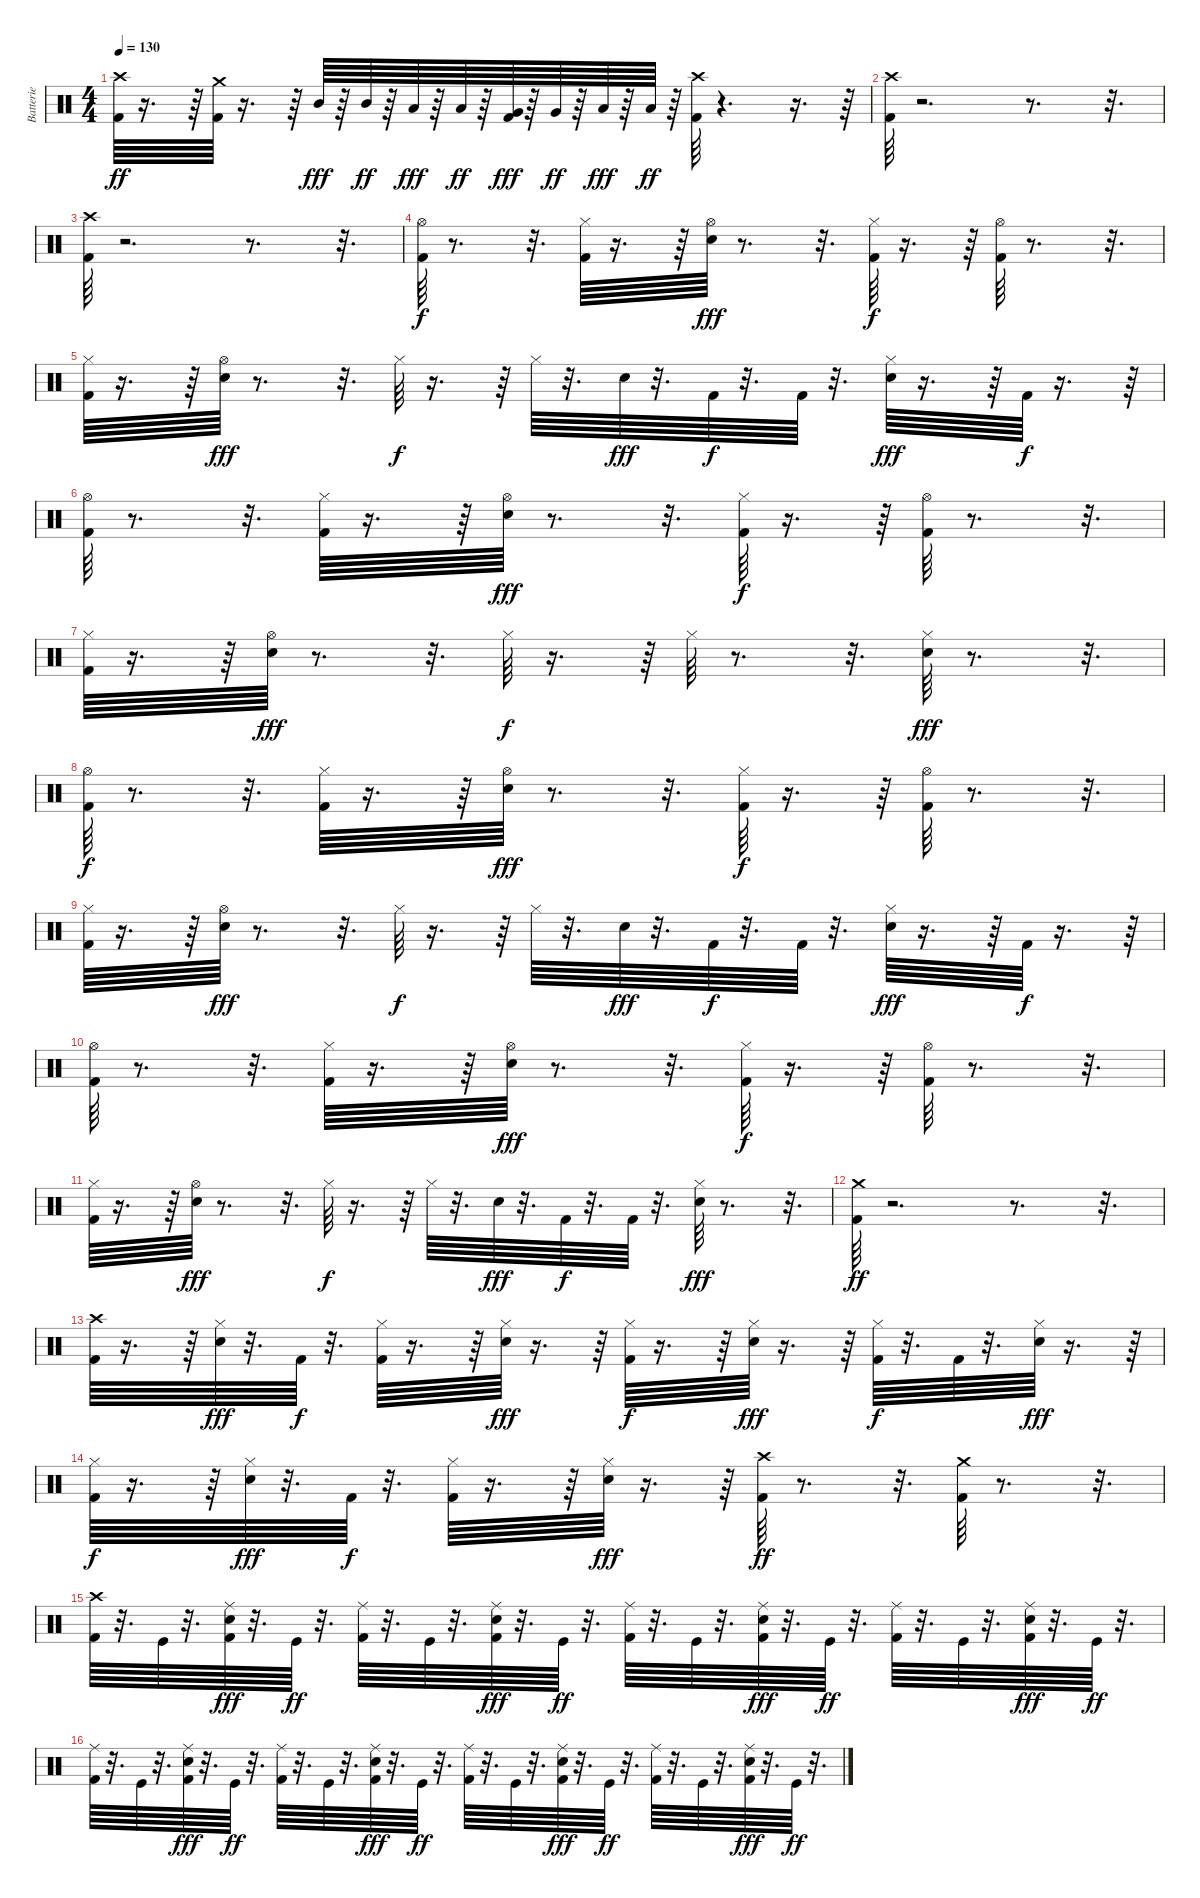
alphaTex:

\track ("Batterie" "Batterie") {instrument percussion}
\staff {score}
\articulation defaults
\ts (4 4)
\tempo 130
\clef neutral
\ks c
("Kick (hit) 2" "Crash high (hit)").64{dy ff} r.16{d} r.64 ("Kick (hit) 2" "Crash medium (hit)").64 r.16{d} r.64 "Mid Tom (hit)".64{dy fff} r.64 "Mid Tom (hit)".64{dy ff} r.64 "Low Tom (hit)".64{dy fff} r.64 "Low Tom (hit)".64{dy ff} r.64 ("Kick (hit) 2" "Very Low Tom (hit)").64{dy fff} r.64 "Very Low Tom (hit)".64{dy ff} r.64 "Low Floor Tom (hit)".64{dy fff} r.64 "Low Floor Tom (hit)".64{dy ff} r.64 ("Kick (hit) 2" "Crash high (hit)").64 r.4{d} r.16{d} r.64 |
("Kick (hit) 2" "Crash high (hit)").64 r.2{d} r.8{d} r.32{d} |
("Kick (hit) 2" "Crash high (hit)").64 r.2{d} r.8{d} r.32{d} |
("Kick (hit) 2" "Hi-Hat (open)").64{dy f} r.8{d} r.32{d} ("Kick (hit) 2" "Hi-Hat (closed)").64 r.16{d} r.64 ("Snare (hit) 2" "Hi-Hat (open)").64{dy fff} r.8{d} r.32{d} ("Kick (hit) 2" "Hi-Hat (closed)").64{dy f} r.16{d} r.64 ("Kick (hit) 2" "Hi-Hat (open)").64 r.8{d} r.32{d} |
("Kick (hit) 2" "Hi-Hat (closed)").64 r.16{d} r.64 ("Snare (hit) 2" "Hi-Hat (open)").64{dy fff} r.8{d} r.32{d} "Hi-Hat (closed)".64{dy f} r.16{d} r.64 "Hi-Hat (closed)".64 r.32{d} "Snare (hit) 2".64{dy fff} r.32{d} "Kick (hit) 2".64{dy f} r.32{d} "Kick (hit) 2".64 r.32{d} ("Hi-Hat (closed)" "Snare (hit) 2").64{dy fff} r.16{d} r.64 "Kick (hit) 2".64{dy f} r.16{d} r.64 |
("Kick (hit) 2" "Hi-Hat (open)").64 r.8{d} r.32{d} ("Kick (hit) 2" "Hi-Hat (closed)").64 r.16{d} r.64 ("Snare (hit) 2" "Hi-Hat (open)").64{dy fff} r.8{d} r.32{d} ("Kick (hit) 2" "Hi-Hat (closed)").64{dy f} r.16{d} r.64 ("Kick (hit) 2" "Hi-Hat (open)").64 r.8{d} r.32{d} |
("Kick (hit) 2" "Hi-Hat (closed)").64 r.16{d} r.64 ("Snare (hit) 2" "Hi-Hat (open)").64{dy fff} r.8{d} r.32{d} "Hi-Hat (closed)".64{dy f} r.16{d} r.64 "Hi-Hat (closed)".64 r.8{d} r.32{d} ("Hi-Hat (closed)" "Snare (hit) 2").64{dy fff} r.8{d} r.32{d} |
("Kick (hit) 2" "Hi-Hat (open)").64{dy f} r.8{d} r.32{d} ("Kick (hit) 2" "Hi-Hat (closed)").64 r.16{d} r.64 ("Snare (hit) 2" "Hi-Hat (open)").64{dy fff} r.8{d} r.32{d} ("Kick (hit) 2" "Hi-Hat (closed)").64{dy f} r.16{d} r.64 ("Kick (hit) 2" "Hi-Hat (open)").64 r.8{d} r.32{d} |
("Kick (hit) 2" "Hi-Hat (closed)").64 r.16{d} r.64 ("Snare (hit) 2" "Hi-Hat (open)").64{dy fff} r.8{d} r.32{d} "Hi-Hat (closed)".64{dy f} r.16{d} r.64 "Hi-Hat (closed)".64 r.32{d} "Snare (hit) 2".64{dy fff} r.32{d} "Kick (hit) 2".64{dy f} r.32{d} "Kick (hit) 2".64 r.32{d} ("Hi-Hat (closed)" "Snare (hit) 2").64{dy fff} r.16{d} r.64 "Kick (hit) 2".64{dy f} r.16{d} r.64 |
("Kick (hit) 2" "Hi-Hat (open)").64 r.8{d} r.32{d} ("Kick (hit) 2" "Hi-Hat (closed)").64 r.16{d} r.64 ("Snare (hit) 2" "Hi-Hat (open)").64{dy fff} r.8{d} r.32{d} ("Kick (hit) 2" "Hi-Hat (closed)").64{dy f} r.16{d} r.64 ("Kick (hit) 2" "Hi-Hat (open)").64 r.8{d} r.32{d} |
("Kick (hit) 2" "Hi-Hat (closed)").64 r.16{d} r.64 ("Snare (hit) 2" "Hi-Hat (open)").64{dy fff} r.8{d} r.32{d} "Hi-Hat (closed)".64{dy f} r.16{d} r.64 "Hi-Hat (closed)".64 r.32{d} "Snare (hit) 2".64{dy fff} r.32{d} "Kick (hit) 2".64{dy f} r.32{d} "Kick (hit) 2".64 r.32{d} ("Hi-Hat (closed)" "Snare (hit) 2").64{dy fff} r.8{d} r.32{d} |
("Kick (hit) 2" "Crash medium (hit)").64{dy ff} r.2{d} r.8{d} r.32{d} |
("Kick (hit) 2" "Crash high (hit)").64 r.16{d} r.64 ("Hi-Hat (closed)" "Snare (hit) 2").64{dy fff} r.32{d} "Kick (hit) 2".64{dy f} r.32{d} ("Kick (hit) 2" "Hi-Hat (closed)").64 r.16{d} r.64 ("Hi-Hat (closed)" "Snare (hit) 2").64{dy fff} r.16{d} r.64 ("Kick (hit) 2" "Hi-Hat (closed)").64{dy f} r.16{d} r.64 ("Hi-Hat (closed)" "Snare (hit) 2").64{dy fff} r.16{d} r.64 ("Kick (hit) 2" "Hi-Hat (closed)").64{dy f} r.32{d} "Kick (hit) 2".64 r.32{d} ("Hi-Hat (closed)" "Snare (hit) 2").64{dy fff} r.16{d} r.64 |
("Kick (hit) 2" "Hi-Hat (closed)").64{dy f} r.16{d} r.64 ("Hi-Hat (closed)" "Snare (hit) 2").64{dy fff} r.32{d} "Kick (hit) 2".64{dy f} r.32{d} ("Kick (hit) 2" "Hi-Hat (closed)").64 r.16{d} r.64 ("Hi-Hat (closed)" "Snare (hit) 2").64{dy fff} r.16{d} r.64 ("Kick (hit) 2" "Crash high (hit)").64{dy ff} r.8{d} r.32{d} ("Crash medium (hit)" "Kick (hit) 2").64 r.8{d} r.32{d} |
("Crash high (hit)" "Kick (hit) 2").64 r.32{d} "Kick (hit)".64 r.32{d} ("Kick (hit) 2" "Snare (hit) 2" "Ride (middle)").64{dy fff} r.32{d} "Kick (hit)".64{dy ff} r.32{d} ("Kick (hit) 2" "Ride (middle)").64 r.32{d} "Kick (hit)".64 r.32{d} ("Kick (hit) 2" "Snare (hit) 2" "Ride (middle)").64{dy fff} r.32{d} "Kick (hit)".64{dy ff} r.32{d} ("Kick (hit) 2" "Ride (middle)").64 r.32{d} "Kick (hit)".64 r.32{d} ("Kick (hit) 2" "Snare (hit) 2" "Ride (middle)").64{dy fff} r.32{d} "Kick (hit)".64{dy ff} r.32{d} ("Kick (hit) 2" "Ride (middle)").64 r.32{d} "Kick (hit)".64 r.32{d} ("Kick (hit) 2" "Snare (hit) 2" "Ride (middle)").64{dy fff} r.32{d} "Kick (hit)".64{dy ff} r.32{d} |
("Kick (hit) 2" "Ride (middle)").64 r.32{d} "Kick (hit)".64 r.32{d} ("Kick (hit) 2" "Snare (hit) 2" "Ride (middle)").64{dy fff} r.32{d} "Kick (hit)".64{dy ff} r.32{d} ("Kick (hit) 2" "Ride (middle)").64 r.32{d} "Kick (hit)".64 r.32{d} ("Kick (hit) 2" "Snare (hit) 2" "Ride (middle)").64{dy fff} r.32{d} "Kick (hit)".64{dy ff} r.32{d} ("Kick (hit) 2" "Ride (middle)").64 r.32{d} "Kick (hit)".64 r.32{d} ("Kick (hit) 2" "Snare (hit) 2" "Ride (middle)").64{dy fff} r.32{d} "Kick (hit)".64{dy ff} r.32{d} ("Kick (hit) 2" "Ride (middle)").64 r.32{d} "Kick (hit)".64 r.32{d} ("Kick (hit) 2" "Snare (hit) 2" "Ride (middle)").64{dy fff} r.32{d} "Kick (hit)".64{dy ff} r.32{d}
